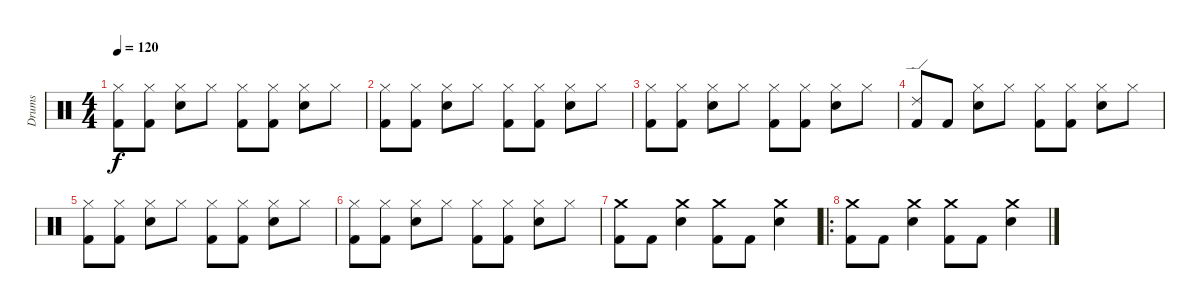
\track ("Drums" "Drums") {instrument percussion}
\staff {score}
\articulation defaults
\ts (4 4)
\tempo 120
\clef neutral
\ks c
("Hi-Hat (closed)" "Kick (hit) 2").8{dy f} ("Hi-Hat (closed)" "Kick (hit) 2").8 ("Hi-Hat (closed)" "Electric Snare (hit)").8 "Hi-Hat (closed)".8 ("Hi-Hat (closed)" "Kick (hit) 2").8 ("Hi-Hat (closed)" "Kick (hit) 2").8 ("Hi-Hat (closed)" "Electric Snare (hit)").8 "Hi-Hat (closed)".8 |
("Hi-Hat (closed)" "Kick (hit) 2").8 ("Hi-Hat (closed)" "Kick (hit) 2").8 ("Hi-Hat (closed)" "Electric Snare (hit)").8 "Hi-Hat (closed)".8 ("Hi-Hat (closed)" "Kick (hit) 2").8 ("Hi-Hat (closed)" "Kick (hit) 2").8 ("Hi-Hat (closed)" "Electric Snare (hit)").8 "Hi-Hat (closed)".8 |
("Hi-Hat (closed)" "Kick (hit) 2").8 ("Hi-Hat (closed)" "Kick (hit) 2").8 ("Hi-Hat (closed)" "Electric Snare (hit)").8 "Hi-Hat (closed)".8 ("Hi-Hat (closed)" "Kick (hit) 2").8 ("Hi-Hat (closed)" "Kick (hit) 2").8 ("Hi-Hat (closed)" "Electric Snare (hit)").8 "Hi-Hat (closed)".8 |
("Ride (edge) 2" "Kick (hit) 2").8 "Kick (hit) 2".8 ("Hi-Hat (closed)" "Electric Snare (hit)").8 "Hi-Hat (closed)".8 ("Hi-Hat (closed)" "Kick (hit) 2").8 ("Hi-Hat (closed)" "Kick (hit) 2").8 ("Hi-Hat (closed)" "Electric Snare (hit)").8 "Hi-Hat (closed)".8 |
("Hi-Hat (closed)" "Kick (hit) 2").8 ("Hi-Hat (closed)" "Kick (hit) 2").8 ("Hi-Hat (closed)" "Electric Snare (hit)").8 "Hi-Hat (closed)".8 ("Hi-Hat (closed)" "Kick (hit) 2").8 ("Hi-Hat (closed)" "Kick (hit) 2").8 ("Hi-Hat (closed)" "Electric Snare (hit)").8 "Hi-Hat (closed)".8 |
("Hi-Hat (closed)" "Kick (hit) 2").8 ("Hi-Hat (closed)" "Kick (hit) 2").8 ("Hi-Hat (closed)" "Electric Snare (hit)").8 "Hi-Hat (closed)".8 ("Hi-Hat (closed)" "Kick (hit) 2").8 ("Hi-Hat (closed)" "Kick (hit) 2").8 ("Hi-Hat (closed)" "Electric Snare (hit)").8 "Hi-Hat (closed)".8 |
("Crash medium (hit)" "Kick (hit) 2").8 "Kick (hit) 2".8 ("Crash medium (hit)" "Electric Snare (hit)").4 ("Crash medium (hit)" "Kick (hit) 2").8 "Kick (hit) 2".8 ("Crash medium (hit)" "Electric Snare (hit)").4 |
\ro
("Crash medium (hit)" "Kick (hit) 2").8 "Kick (hit) 2".8 ("Crash medium (hit)" "Electric Snare (hit)").4 ("Crash medium (hit)" "Kick (hit) 2").8 "Kick (hit) 2".8 ("Crash medium (hit)" "Electric Snare (hit)").4
